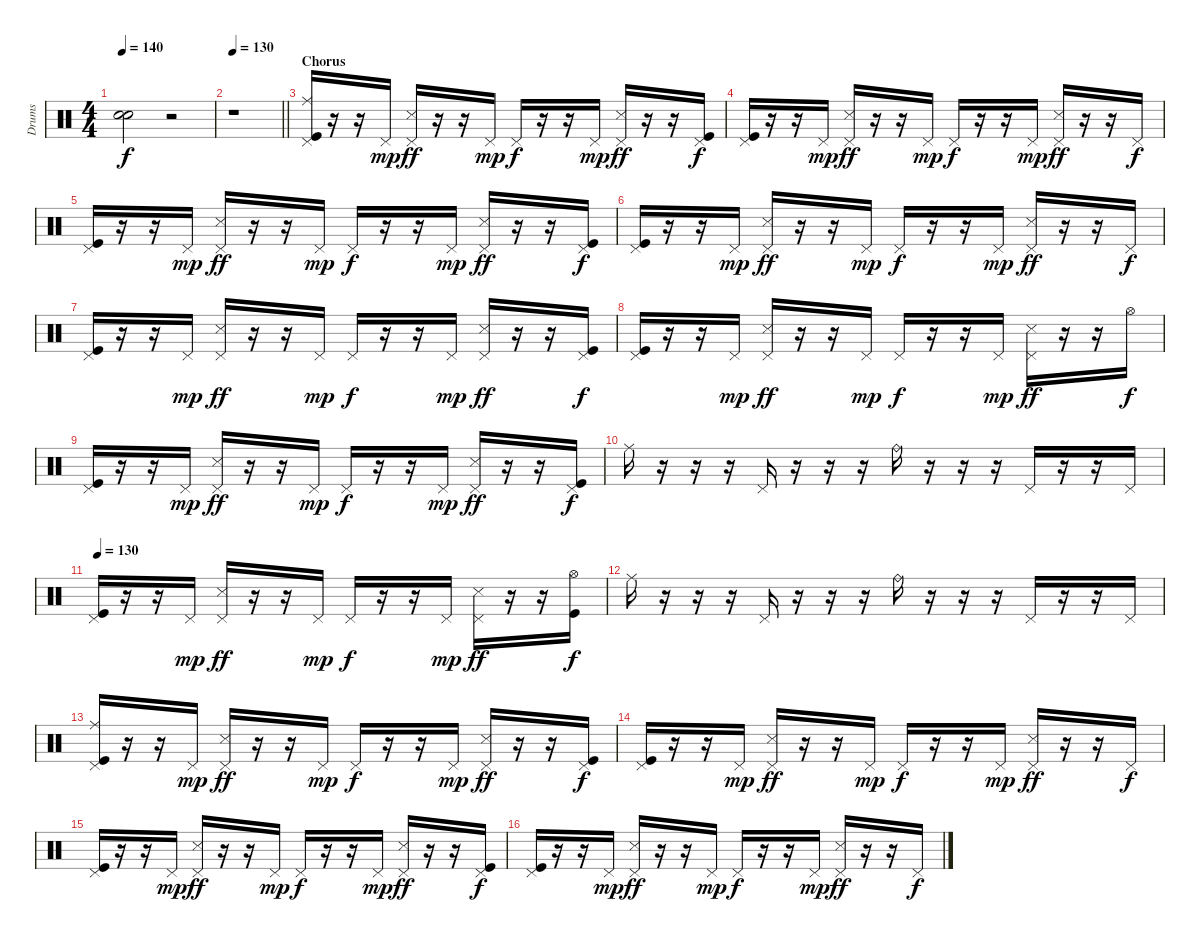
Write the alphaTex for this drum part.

\track ("Drums" "Drums") {instrument percussion}
\staff {score}
\articulation defaults
\ts (4 4)
\tempo 140
\clef neutral
\ks c
("Snare (hit)"{t} "Snare (hit)"{t}).2{dy f} r.2 |
\tempo 130
\barLineRight lightlight
r.1 |
\section ("" "Chorus")
("Pedal Hi-Hat (hit)" "Ride (middle)" "Kick (hit)").16 r.16 r.16 "Pedal Hi-Hat (hit)".16{dy mp} ("Pedal Hi-Hat (hit)" "Snare (side stick) 3").16{dy ff} r.16 r.16 "Pedal Hi-Hat (hit)".16{dy mp} "Pedal Hi-Hat (hit)".16{dy f} r.16 r.16 "Pedal Hi-Hat (hit)".16{dy mp} ("Pedal Hi-Hat (hit)" "Snare (side stick) 3").16{dy ff} r.16 r.16 ("Pedal Hi-Hat (hit)" "Kick (hit)").16{dy f} |
("Pedal Hi-Hat (hit)" "Kick (hit)").16 r.16 r.16 "Pedal Hi-Hat (hit)".16{dy mp} ("Pedal Hi-Hat (hit)" "Snare (side stick) 3").16{dy ff} r.16 r.16 "Pedal Hi-Hat (hit)".16{dy mp} "Pedal Hi-Hat (hit)".16{dy f} r.16 r.16 "Pedal Hi-Hat (hit)".16{dy mp} ("Pedal Hi-Hat (hit)" "Snare (side stick) 3").16{dy ff} r.16 r.16 "Pedal Hi-Hat (hit)".16{dy f} |
("Pedal Hi-Hat (hit)" "Kick (hit)").16 r.16 r.16 "Pedal Hi-Hat (hit)".16{dy mp} ("Pedal Hi-Hat (hit)" "Snare (side stick) 3").16{dy ff} r.16 r.16 "Pedal Hi-Hat (hit)".16{dy mp} "Pedal Hi-Hat (hit)".16{dy f} r.16 r.16 "Pedal Hi-Hat (hit)".16{dy mp} ("Pedal Hi-Hat (hit)" "Snare (side stick) 3").16{dy ff} r.16 r.16 ("Pedal Hi-Hat (hit)" "Kick (hit)").16{dy f} |
("Pedal Hi-Hat (hit)" "Kick (hit)").16 r.16 r.16 "Pedal Hi-Hat (hit)".16{dy mp} ("Pedal Hi-Hat (hit)" "Snare (side stick) 3").16{dy ff} r.16 r.16 "Pedal Hi-Hat (hit)".16{dy mp} "Pedal Hi-Hat (hit)".16{dy f} r.16 r.16 "Pedal Hi-Hat (hit)".16{dy mp} ("Pedal Hi-Hat (hit)" "Snare (side stick) 3").16{dy ff} r.16 r.16 "Pedal Hi-Hat (hit)".16{dy f} |
("Pedal Hi-Hat (hit)" "Kick (hit)").16 r.16 r.16 "Pedal Hi-Hat (hit)".16{dy mp} ("Pedal Hi-Hat (hit)" "Snare (side stick) 3").16{dy ff} r.16 r.16 "Pedal Hi-Hat (hit)".16{dy mp} "Pedal Hi-Hat (hit)".16{dy f} r.16 r.16 "Pedal Hi-Hat (hit)".16{dy mp} ("Pedal Hi-Hat (hit)" "Snare (side stick) 3").16{dy ff} r.16 r.16 ("Pedal Hi-Hat (hit)" "Kick (hit)").16{dy f} |
("Pedal Hi-Hat (hit)" "Kick (hit)").16 r.16 r.16 "Pedal Hi-Hat (hit)".16{dy mp} ("Pedal Hi-Hat (hit)" "Snare (side stick) 3").16{dy ff} r.16 r.16 "Pedal Hi-Hat (hit)".16{dy mp} "Pedal Hi-Hat (hit)".16{dy f} r.16 r.16 "Pedal Hi-Hat (hit)".16{dy mp} ("Pedal Hi-Hat (hit)" "Snare (side stick) 3").16{dy ff} r.16 r.16 "Hi-Hat (open)".16{dy f} |
("Pedal Hi-Hat (hit)" "Kick (hit)").16 r.16 r.16 "Pedal Hi-Hat (hit)".16{dy mp} ("Pedal Hi-Hat (hit)" "Snare (side stick) 3").16{dy ff} r.16 r.16 "Pedal Hi-Hat (hit)".16{dy mp} "Pedal Hi-Hat (hit)".16{dy f} r.16 r.16 "Pedal Hi-Hat (hit)".16{dy mp} ("Pedal Hi-Hat (hit)" "Snare (side stick) 3").16{dy ff} r.16 r.16 ("Pedal Hi-Hat (hit)" "Kick (hit)").16{dy f} |
"Ride (middle)".16 r.16 r.16 r.16 "Pedal Hi-Hat (hit)".16 r.16 r.16 r.16 "Ride (bell)".16 r.16 r.16 r.16 "Pedal Hi-Hat (hit)".16 r.16 r.16 "Pedal Hi-Hat (hit)".16 |
\tempo 130
("Pedal Hi-Hat (hit)" "Kick (hit)").16 r.16 r.16 "Pedal Hi-Hat (hit)".16{dy mp} ("Pedal Hi-Hat (hit)" "Snare (side stick) 3").16{dy ff} r.16 r.16 "Pedal Hi-Hat (hit)".16{dy mp} "Pedal Hi-Hat (hit)".16{dy f} r.16 r.16 "Pedal Hi-Hat (hit)".16{dy mp} ("Pedal Hi-Hat (hit)" "Snare (side stick) 3").16{dy ff} r.16 r.16 ("Hi-Hat (open)" "Kick (hit)").16{dy f} |
"Ride (middle)".16 r.16 r.16 r.16 "Pedal Hi-Hat (hit)".16 r.16 r.16 r.16 "Ride (bell)".16 r.16 r.16 r.16 "Pedal Hi-Hat (hit)".16 r.16 r.16 "Pedal Hi-Hat (hit)".16 |
("Pedal Hi-Hat (hit)" "Ride (middle)" "Kick (hit)").16 r.16 r.16 "Pedal Hi-Hat (hit)".16{dy mp} ("Pedal Hi-Hat (hit)" "Snare (side stick) 3").16{dy ff} r.16 r.16 "Pedal Hi-Hat (hit)".16{dy mp} "Pedal Hi-Hat (hit)".16{dy f} r.16 r.16 "Pedal Hi-Hat (hit)".16{dy mp} ("Pedal Hi-Hat (hit)" "Snare (side stick) 3").16{dy ff} r.16 r.16 ("Pedal Hi-Hat (hit)" "Kick (hit)").16{dy f} |
("Pedal Hi-Hat (hit)" "Kick (hit)").16 r.16 r.16 "Pedal Hi-Hat (hit)".16{dy mp} ("Pedal Hi-Hat (hit)" "Snare (side stick) 3").16{dy ff} r.16 r.16 "Pedal Hi-Hat (hit)".16{dy mp} "Pedal Hi-Hat (hit)".16{dy f} r.16 r.16 "Pedal Hi-Hat (hit)".16{dy mp} ("Pedal Hi-Hat (hit)" "Snare (side stick) 3").16{dy ff} r.16 r.16 "Pedal Hi-Hat (hit)".16{dy f} |
("Pedal Hi-Hat (hit)" "Kick (hit)").16 r.16 r.16 "Pedal Hi-Hat (hit)".16{dy mp} ("Pedal Hi-Hat (hit)" "Snare (side stick) 3").16{dy ff} r.16 r.16 "Pedal Hi-Hat (hit)".16{dy mp} "Pedal Hi-Hat (hit)".16{dy f} r.16 r.16 "Pedal Hi-Hat (hit)".16{dy mp} ("Pedal Hi-Hat (hit)" "Snare (side stick) 3").16{dy ff} r.16 r.16 ("Pedal Hi-Hat (hit)" "Kick (hit)").16{dy f} |
("Pedal Hi-Hat (hit)" "Kick (hit)").16 r.16 r.16 "Pedal Hi-Hat (hit)".16{dy mp} ("Pedal Hi-Hat (hit)" "Snare (side stick) 3").16{dy ff} r.16 r.16 "Pedal Hi-Hat (hit)".16{dy mp} "Pedal Hi-Hat (hit)".16{dy f} r.16 r.16 "Pedal Hi-Hat (hit)".16{dy mp} ("Pedal Hi-Hat (hit)" "Snare (side stick) 3").16{dy ff} r.16 r.16 "Pedal Hi-Hat (hit)".16{dy f}
